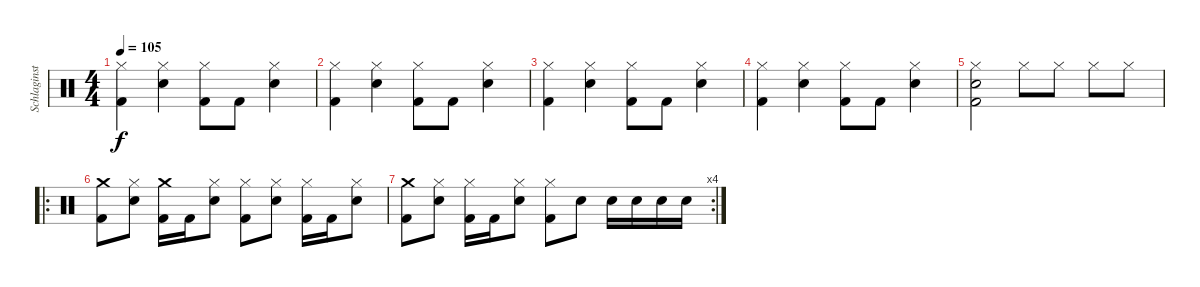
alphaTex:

\track ("Schlaginstrumente - Auswahl" "Schlaginst") {instrument percussion}
\staff {score}
\articulation defaults
\ts (4 4)
\tempo 105
\clef neutral
\ks c
("Hi-Hat (closed)" "Kick (hit) 2").4{dy f} ("Hi-Hat (closed)" "Snare (hit) 2").4 ("Hi-Hat (closed)" "Kick (hit) 2").8 "Kick (hit) 2".8 ("Hi-Hat (closed)" "Snare (hit) 2").4 |
("Hi-Hat (closed)" "Kick (hit) 2").4 ("Hi-Hat (closed)" "Snare (hit) 2").4 ("Hi-Hat (closed)" "Kick (hit) 2").8 "Kick (hit) 2".8 ("Hi-Hat (closed)" "Snare (hit) 2").4 |
("Hi-Hat (closed)" "Kick (hit) 2").4 ("Hi-Hat (closed)" "Snare (hit) 2").4 ("Hi-Hat (closed)" "Kick (hit) 2").8 "Kick (hit) 2".8 ("Hi-Hat (closed)" "Snare (hit) 2").4 |
("Hi-Hat (closed)" "Kick (hit) 2").4 ("Hi-Hat (closed)" "Snare (hit) 2").4 ("Hi-Hat (closed)" "Kick (hit) 2").8 "Kick (hit) 2".8 ("Hi-Hat (closed)" "Snare (hit) 2").4 |
("Hi-Hat (closed)" "Snare (hit) 2" "Kick (hit) 2").2 "Hi-Hat (closed)".8 "Hi-Hat (closed)".8 "Hi-Hat (closed)".8 "Hi-Hat (closed)".8 |
\ro
("Crash medium (hit)" "Kick (hit) 2").8 ("Hi-Hat (closed)" "Snare (hit) 2").8 ("Crash medium (hit)" "Kick (hit) 2").16 "Kick (hit) 2".16 ("Hi-Hat (closed)" "Snare (hit) 2").8 ("Hi-Hat (closed)" "Kick (hit) 2").8 ("Hi-Hat (closed)" "Snare (hit) 2").8 ("Hi-Hat (closed)" "Kick (hit) 2").16 "Kick (hit) 2".16 ("Hi-Hat (closed)" "Snare (hit) 2").8 |
\rc 4
("Crash medium (hit)" "Kick (hit) 2").8 ("Hi-Hat (closed)" "Snare (hit) 2").8 ("Hi-Hat (closed)" "Kick (hit) 2").16 "Kick (hit) 2".16 ("Hi-Hat (closed)" "Snare (hit) 2").8 ("Hi-Hat (closed)" "Kick (hit) 2").8 "Snare (hit) 2".8 "Snare (hit) 2".16 "Snare (hit) 2".16 "Snare (hit) 2".16 "Snare (hit) 2".16
